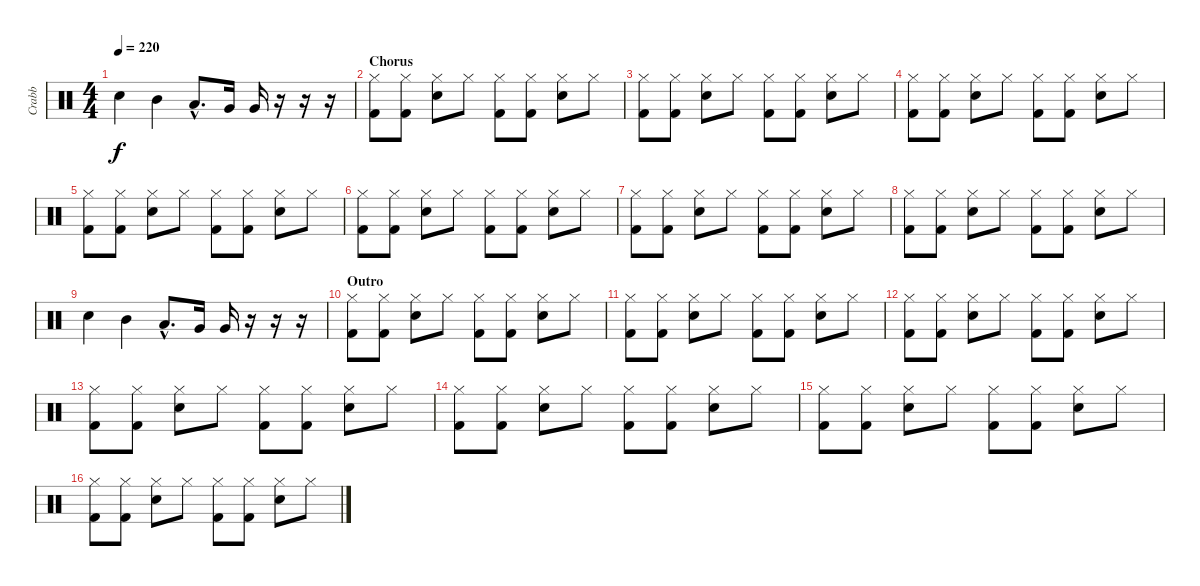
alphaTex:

\track ("Crabb" "Crabb") {instrument percussion}
\staff {score}
\articulation defaults
\ts (4 4)
\tempo 220
\clef neutral
\ks c "Electric Snare (hit)".4{dy f} "Mid Tom (hit)".4 "Low Tom (hit)"{hac}.8{d} "Very Low Tom (hit)".16 "Very Low Tom (hit)".16
r.16 r.16 r.16 |
\section ("" "Chorus")
("Hi-Hat (closed)" "Kick (hit) 2").8 ("Hi-Hat (closed)" "Kick (hit) 2").8 ("Hi-Hat (closed)" "Electric Snare (hit)").8 "Hi-Hat (closed)".8 ("Hi-Hat (closed)" "Kick (hit) 2").8 ("Hi-Hat (closed)" "Kick (hit) 2").8 ("Hi-Hat (closed)" "Electric Snare (hit)").8 "Hi-Hat (closed)".8 |
("Hi-Hat (closed)" "Kick (hit) 2").8 ("Hi-Hat (closed)" "Kick (hit) 2").8 ("Hi-Hat (closed)" "Electric Snare (hit)").8 "Hi-Hat (closed)".8 ("Hi-Hat (closed)" "Kick (hit) 2").8 ("Hi-Hat (closed)" "Kick (hit) 2").8 ("Hi-Hat (closed)" "Electric Snare (hit)").8 "Hi-Hat (closed)".8 |
("Hi-Hat (closed)" "Kick (hit) 2").8 ("Hi-Hat (closed)" "Kick (hit) 2").8 ("Hi-Hat (closed)" "Electric Snare (hit)").8 "Hi-Hat (closed)".8 ("Hi-Hat (closed)" "Kick (hit) 2").8 ("Hi-Hat (closed)" "Kick (hit) 2").8 ("Hi-Hat (closed)" "Electric Snare (hit)").8 "Hi-Hat (closed)".8 |
("Hi-Hat (closed)" "Kick (hit) 2").8 ("Hi-Hat (closed)" "Kick (hit) 2").8 ("Hi-Hat (closed)" "Electric Snare (hit)").8 "Hi-Hat (closed)".8 ("Hi-Hat (closed)" "Kick (hit) 2").8 ("Hi-Hat (closed)" "Kick (hit) 2").8 ("Hi-Hat (closed)" "Electric Snare (hit)").8 "Hi-Hat (closed)".8 |
("Hi-Hat (closed)" "Kick (hit) 2").8 ("Hi-Hat (closed)" "Kick (hit) 2").8 ("Hi-Hat (closed)" "Electric Snare (hit)").8 "Hi-Hat (closed)".8 ("Hi-Hat (closed)" "Kick (hit) 2").8 ("Hi-Hat (closed)" "Kick (hit) 2").8 ("Hi-Hat (closed)" "Electric Snare (hit)").8 "Hi-Hat (closed)".8 |
("Hi-Hat (closed)" "Kick (hit) 2").8 ("Hi-Hat (closed)" "Kick (hit) 2").8 ("Hi-Hat (closed)" "Electric Snare (hit)").8 "Hi-Hat (closed)".8 ("Hi-Hat (closed)" "Kick (hit) 2").8 ("Hi-Hat (closed)" "Kick (hit) 2").8 ("Hi-Hat (closed)" "Electric Snare (hit)").8 "Hi-Hat (closed)".8 |
("Hi-Hat (closed)" "Kick (hit) 2").8 ("Hi-Hat (closed)" "Kick (hit) 2").8 ("Hi-Hat (closed)" "Electric Snare (hit)").8 "Hi-Hat (closed)".8 ("Hi-Hat (closed)" "Kick (hit) 2").8 ("Hi-Hat (closed)" "Kick (hit) 2").8 ("Hi-Hat (closed)" "Electric Snare (hit)").8 "Hi-Hat (closed)".8 |
"Electric Snare (hit)".4 "Mid Tom (hit)".4 "Low Tom (hit)"{hac}.8{d} "Very Low Tom (hit)".16 "Very Low Tom (hit)".16 r.16 r.16 r.16 |
\section ("" "Outro")
("Hi-Hat (closed)" "Kick (hit) 2").8 ("Hi-Hat (closed)" "Kick (hit) 2").8 ("Hi-Hat (closed)" "Electric Snare (hit)").8 "Hi-Hat (closed)".8 ("Hi-Hat (closed)" "Kick (hit) 2").8 ("Hi-Hat (closed)" "Kick (hit) 2").8 ("Hi-Hat (closed)" "Electric Snare (hit)").8 "Hi-Hat (closed)".8 |
("Hi-Hat (closed)" "Kick (hit) 2").8 ("Hi-Hat (closed)" "Kick (hit) 2").8 ("Hi-Hat (closed)" "Electric Snare (hit)").8 "Hi-Hat (closed)".8 ("Hi-Hat (closed)" "Kick (hit) 2").8 ("Hi-Hat (closed)" "Kick (hit) 2").8 ("Hi-Hat (closed)" "Electric Snare (hit)").8 "Hi-Hat (closed)".8 |
("Hi-Hat (closed)" "Kick (hit) 2").8 ("Hi-Hat (closed)" "Kick (hit) 2").8 ("Hi-Hat (closed)" "Electric Snare (hit)").8 "Hi-Hat (closed)".8 ("Hi-Hat (closed)" "Kick (hit) 2").8 ("Hi-Hat (closed)" "Kick (hit) 2").8 ("Hi-Hat (closed)" "Electric Snare (hit)").8 "Hi-Hat (closed)".8 |
("Hi-Hat (closed)" "Kick (hit) 2").8 ("Hi-Hat (closed)" "Kick (hit) 2").8 ("Hi-Hat (closed)" "Electric Snare (hit)").8 "Hi-Hat (closed)".8 ("Hi-Hat (closed)" "Kick (hit) 2").8 ("Hi-Hat (closed)" "Kick (hit) 2").8 ("Hi-Hat (closed)" "Electric Snare (hit)").8 "Hi-Hat (closed)".8 |
("Hi-Hat (closed)" "Kick (hit) 2").8 ("Hi-Hat (closed)" "Kick (hit) 2").8 ("Hi-Hat (closed)" "Electric Snare (hit)").8 "Hi-Hat (closed)".8 ("Hi-Hat (closed)" "Kick (hit) 2").8 ("Hi-Hat (closed)" "Kick (hit) 2").8 ("Hi-Hat (closed)" "Electric Snare (hit)").8 "Hi-Hat (closed)".8 |
("Hi-Hat (closed)" "Kick (hit) 2").8 ("Hi-Hat (closed)" "Kick (hit) 2").8 ("Hi-Hat (closed)" "Electric Snare (hit)").8 "Hi-Hat (closed)".8 ("Hi-Hat (closed)" "Kick (hit) 2").8 ("Hi-Hat (closed)" "Kick (hit) 2").8 ("Hi-Hat (closed)" "Electric Snare (hit)").8 "Hi-Hat (closed)".8 |
("Hi-Hat (closed)" "Kick (hit) 2").8 ("Hi-Hat (closed)" "Kick (hit) 2").8 ("Hi-Hat (closed)" "Electric Snare (hit)").8 "Hi-Hat (closed)".8 ("Hi-Hat (closed)" "Kick (hit) 2").8 ("Hi-Hat (closed)" "Kick (hit) 2").8 ("Hi-Hat (closed)" "Electric Snare (hit)").8 "Hi-Hat (closed)".8
